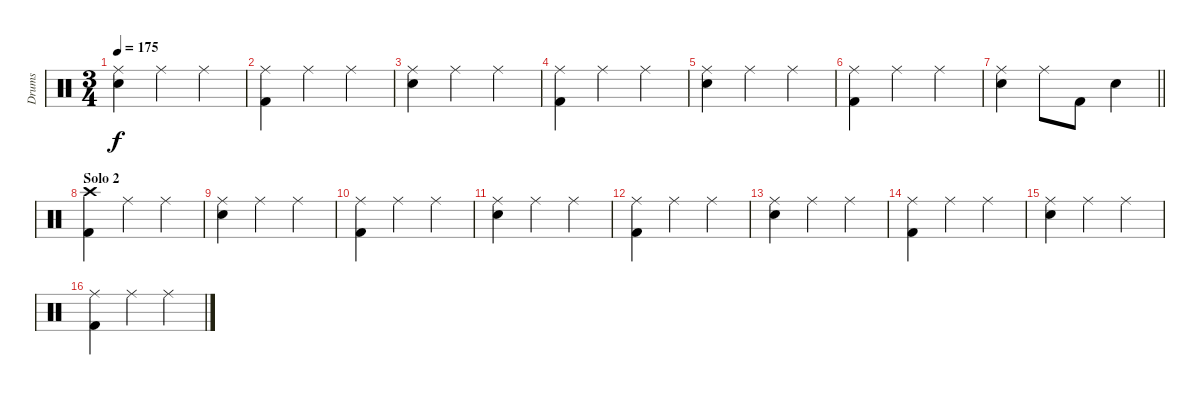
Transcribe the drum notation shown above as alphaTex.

\track ("Drums" "Drums") {instrument percussion}
\staff {score}
\articulation defaults
\ts (3 4)
\tempo 175
\clef neutral
\ks c
("Ride (middle)" "Electric Snare (hit)").4{dy f} "Ride (middle)".4 "Ride (middle)".4 |
("Ride (middle)" "Kick (hit) 2").4 "Ride (middle)".4 "Ride (middle)".4 |
("Ride (middle)" "Electric Snare (hit)").4 "Ride (middle)".4 "Ride (middle)".4 |
("Ride (middle)" "Kick (hit) 2").4 "Ride (middle)".4 "Ride (middle)".4 |
("Ride (middle)" "Electric Snare (hit)").4 "Ride (middle)".4 "Ride (middle)".4 |
("Ride (middle)" "Kick (hit) 2").4 "Ride (middle)".4 "Ride (middle)".4 |
\barLineRight lightlight
("Ride (middle)" "Electric Snare (hit)").4 "Ride (middle)".8 "Kick (hit) 2".8 "Electric Snare (hit)".4 |
\section ("" "Solo 2")
("Crash high (hit)" "Kick (hit) 2").4 "Ride (middle)".4 "Ride (middle)".4 |
("Ride (middle)" "Electric Snare (hit)").4 "Ride (middle)".4 "Ride (middle)".4 |
("Ride (middle)" "Kick (hit) 2").4 "Ride (middle)".4 "Ride (middle)".4 |
("Ride (middle)" "Electric Snare (hit)").4 "Ride (middle)".4 "Ride (middle)".4 |
("Ride (middle)" "Kick (hit) 2").4 "Ride (middle)".4 "Ride (middle)".4 |
("Ride (middle)" "Electric Snare (hit)").4 "Ride (middle)".4 "Ride (middle)".4 |
("Ride (middle)" "Kick (hit) 2").4 "Ride (middle)".4 "Ride (middle)".4 |
("Ride (middle)" "Electric Snare (hit)").4 "Ride (middle)".4 "Ride (middle)".4 |
("Ride (middle)" "Kick (hit) 2").4 "Ride (middle)".4 "Ride (middle)".4
